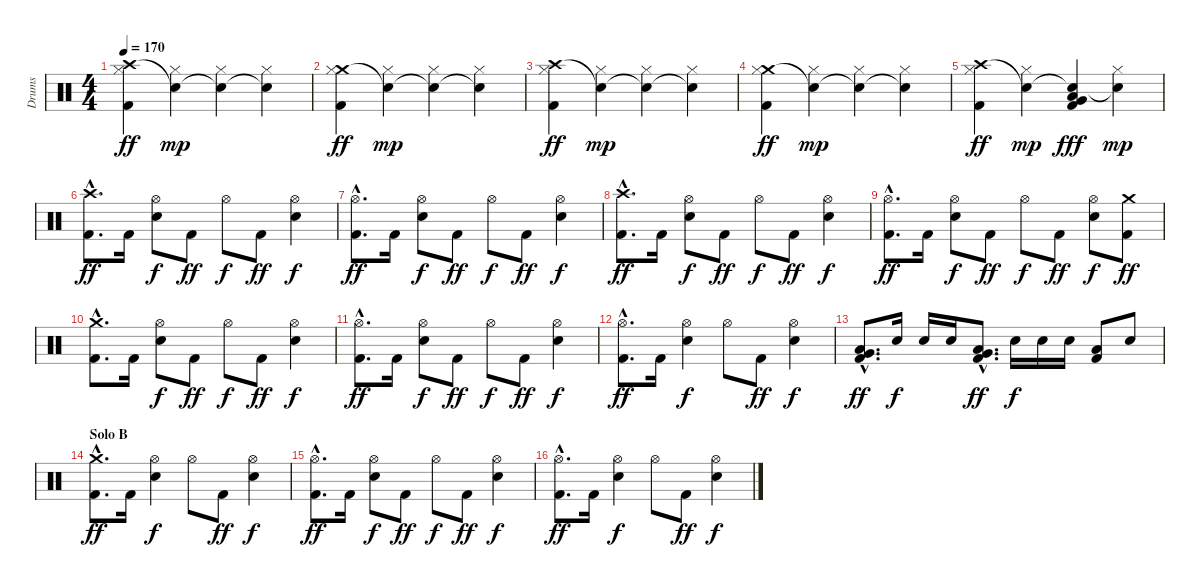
\track ("Drums" "Drums") {instrument percussion}
\staff {score}
\articulation defaults
\ts (4 4)
\tempo 170
\clef neutral
\ks c
("Crash high (hit)" "Hi-Hat (closed)" "Kick (hit) 2").4{dy ff} ("Snare (hit)"{t} "Hi-Hat (closed)").4{dy mp} ("Snare (hit)"{t} "Hi-Hat (closed)").4 ("Snare (hit)"{t} "Hi-Hat (closed)").4 |
("Crash medium (hit)" "Hi-Hat (closed)" "Kick (hit) 2").4{dy ff} ("Snare (hit)"{t} "Hi-Hat (closed)").4{dy mp} ("Snare (hit)"{t} "Hi-Hat (closed)").4 ("Snare (hit)"{t} "Hi-Hat (closed)").4 |
("Crash high (hit)" "Hi-Hat (closed)" "Kick (hit) 2").4{dy ff} ("Snare (hit)"{t} "Hi-Hat (closed)").4{dy mp} ("Snare (hit)"{t} "Hi-Hat (closed)").4 ("Snare (hit)"{t} "Hi-Hat (closed)").4 |
("Crash medium (hit)" "Hi-Hat (closed)" "Kick (hit) 2").4{dy ff} ("Snare (hit)"{t} "Hi-Hat (closed)").4{dy mp} ("Snare (hit)"{t} "Hi-Hat (closed)").4 ("Snare (hit)"{t} "Hi-Hat (closed)").4 |
("Crash high (hit)" "Hi-Hat (closed)" "Kick (hit) 2").4{dy ff} ("Snare (hit)"{t} "Hi-Hat (closed)").4{dy mp} ("Snare (hit)"{t} "Very Low Tom (hit)" "Low Floor Tom (hit)" "Kick (hit) 2").4{dy fff} ("Snare (hit)"{t} "Hi-Hat (closed)").4{dy mp} |
("Crash high (hit)"{hac} "Kick (hit) 2"{hac}).8{d dy ff} "Kick (hit) 2".16 ("Hi-Hat (open)" "Snare (hit) 2").8{dy f} "Kick (hit) 2".8{dy ff} "Hi-Hat (open)".8{dy f} "Kick (hit) 2".8{dy ff} ("Hi-Hat (open)" "Snare (hit) 2").4{dy f} |
("Hi-Hat (open)"{hac} "Kick (hit) 2"{hac}).8{d dy ff} "Kick (hit) 2".16 ("Hi-Hat (open)" "Snare (hit) 2").8{dy f} "Kick (hit) 2".8{dy ff} "Hi-Hat (open)".8{dy f} "Kick (hit) 2".8{dy ff} ("Hi-Hat (open)" "Snare (hit) 2").4{dy f} |
("Crash high (hit)"{hac} "Kick (hit) 2"{hac}).8{d dy ff} "Kick (hit) 2".16 ("Hi-Hat (open)" "Snare (hit) 2").8{dy f} "Kick (hit) 2".8{dy ff} "Hi-Hat (open)".8{dy f} "Kick (hit) 2".8{dy ff} ("Hi-Hat (open)" "Snare (hit) 2").4{dy f} |
("Hi-Hat (open)"{hac} "Kick (hit) 2"{hac}).8{d dy ff} "Kick (hit) 2".16 ("Hi-Hat (open)" "Snare (hit) 2").8{dy f} "Kick (hit) 2".8{dy ff} "Hi-Hat (open)".8{dy f} "Kick (hit) 2".8{dy ff} ("Hi-Hat (open)" "Snare (hit) 2").8{dy f} ("Crash medium (hit)" "Kick (hit) 2").8{dy ff} |
("Crash medium (hit)"{hac} "Kick (hit) 2"{hac}).8{d} "Kick (hit) 2".16 ("Hi-Hat (open)" "Snare (hit) 2").8{dy f} "Kick (hit) 2".8{dy ff} "Hi-Hat (open)".8{dy f} "Kick (hit) 2".8{dy ff} ("Hi-Hat (open)" "Snare (hit) 2").4{dy f} |
("Hi-Hat (open)"{hac} "Kick (hit) 2"{hac}).8{d dy ff} "Kick (hit) 2".16 ("Hi-Hat (open)" "Snare (hit) 2").8{dy f} "Kick (hit) 2".8{dy ff} "Hi-Hat (open)".8{dy f} "Kick (hit) 2".8{dy ff} ("Hi-Hat (open)" "Snare (hit) 2").4{dy f} |
("Hi-Hat (open)"{hac} "Kick (hit) 2"{hac}).8{d dy ff} "Kick (hit) 2".16 ("Hi-Hat (open)" "Snare (hit) 2").4{dy f} "Hi-Hat (open)".8 "Kick (hit) 2".8{dy ff} ("Hi-Hat (open)" "Snare (hit) 2").4{dy f} |
("Low Tom (hit)"{hac} "Very Low Tom (hit)"{hac} "Kick (hit) 2"{hac}).8{d dy ff} "Snare (hit) 2".16{dy f} "Snare (hit) 2".16 "Snare (hit) 2".16 ("Very Low Tom (hit)"{hac} "Low Floor Tom (hit)"{hac} "Kick (hit) 2"{hac}).8{d dy ff} "Snare (hit) 2".16{dy f} "Snare (hit) 2".16 "Snare (hit) 2".16 ("Low Floor Tom (hit)" "Kick (hit) 2").8 "Snare (hit) 2".8 |
\section ("" "Solo B")
("Crash medium (hit)"{hac} "Kick (hit) 2"{hac}).8{d dy ff} "Kick (hit) 2".16 ("Hi-Hat (open)" "Snare (hit) 2").4{dy f} "Hi-Hat (open)".8 "Kick (hit) 2".8{dy ff} ("Hi-Hat (open)" "Snare (hit) 2").4{dy f} |
("Hi-Hat (open)"{hac} "Kick (hit) 2"{hac}).8{d dy ff} "Kick (hit) 2".16 ("Hi-Hat (open)" "Snare (hit) 2").8{dy f} "Kick (hit) 2".8{dy ff} "Hi-Hat (open)".8{dy f} "Kick (hit) 2".8{dy ff} ("Hi-Hat (open)" "Snare (hit) 2").4{dy f} |
("Hi-Hat (open)"{hac} "Kick (hit) 2"{hac}).8{d dy ff} "Kick (hit) 2".16 ("Hi-Hat (open)" "Snare (hit) 2").4{dy f} "Hi-Hat (open)".8 "Kick (hit) 2".8{dy ff} ("Hi-Hat (open)" "Snare (hit) 2").4{dy f}
